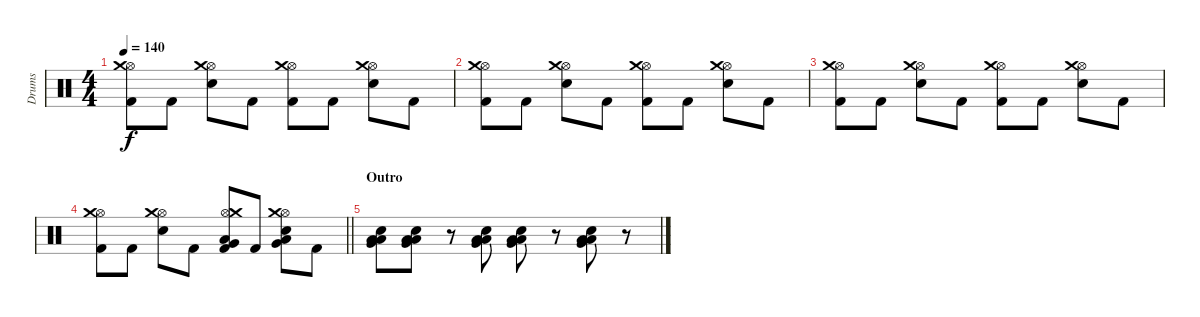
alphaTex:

\track ("Drums" "Drums") {instrument percussion}
\staff {score}
\articulation defaults
\ts (4 4)
\tempo 140
\clef neutral
\ks c
("Kick (hit) 2" "Hi-Hat (open)" "Crash medium (hit)").8{dy f} "Kick (hit) 2".8 ("Electric Snare (hit)" "Hi-Hat (open)" "Crash medium (hit)").8 "Kick (hit) 2".8 ("Kick (hit) 2" "Hi-Hat (open)" "Crash medium (hit)").8 "Kick (hit) 2".8 ("Electric Snare (hit)" "Hi-Hat (open)" "Crash medium (hit)").8 "Kick (hit) 2".8 |
("Kick (hit) 2" "Hi-Hat (open)" "Crash medium (hit)").8 "Kick (hit) 2".8 ("Electric Snare (hit)" "Hi-Hat (open)" "Crash medium (hit)").8 "Kick (hit) 2".8 ("Kick (hit) 2" "Hi-Hat (open)" "Crash medium (hit)").8 "Kick (hit) 2".8 ("Electric Snare (hit)" "Hi-Hat (open)" "Crash medium (hit)").8 "Kick (hit) 2".8 |
("Kick (hit) 2" "Hi-Hat (open)" "Crash medium (hit)").8 "Kick (hit) 2".8 ("Electric Snare (hit)" "Hi-Hat (open)" "Crash medium (hit)").8 "Kick (hit) 2".8 ("Kick (hit) 2" "Hi-Hat (open)" "Crash medium (hit)").8 "Kick (hit) 2".8 ("Electric Snare (hit)" "Hi-Hat (open)" "Crash medium (hit)").8 "Kick (hit) 2".8 |
\barLineRight lightlight
("Kick (hit) 2" "Hi-Hat (open)" "Crash medium (hit)").8 "Kick (hit) 2".8 ("Electric Snare (hit)" "Hi-Hat (open)" "Crash medium (hit)").8 "Kick (hit) 2".8 ("Kick (hit) 2" "Hi-Hat (open)" "Crash medium (hit)" "Very Low Tom (hit)" "Low Tom (hit)").8 "Kick (hit) 2".8 ("Electric Snare (hit)" "Hi-Hat (open)" "Crash medium (hit)" "Very Low Tom (hit)" "Low Tom (hit)").8 "Kick (hit) 2".8 |
\section ("" "Outro")
("Electric Snare (hit)" "Low Floor Tom (hit)" "Very Low Tom (hit)" "Low Tom (hit)").8 ("Electric Snare (hit)" "Low Floor Tom (hit)" "Very Low Tom (hit)" "Low Tom (hit)").8 r.8 ("Electric Snare (hit)" "Low Floor Tom (hit)" "Very Low Tom (hit)" "Low Tom (hit)").8 ("Electric Snare (hit)" "Low Floor Tom (hit)" "Very Low Tom (hit)" "Low Tom (hit)").8 r.8 ("Electric Snare (hit)" "Low Floor Tom (hit)" "Very Low Tom (hit)" "Low Tom (hit)").8 r.8
